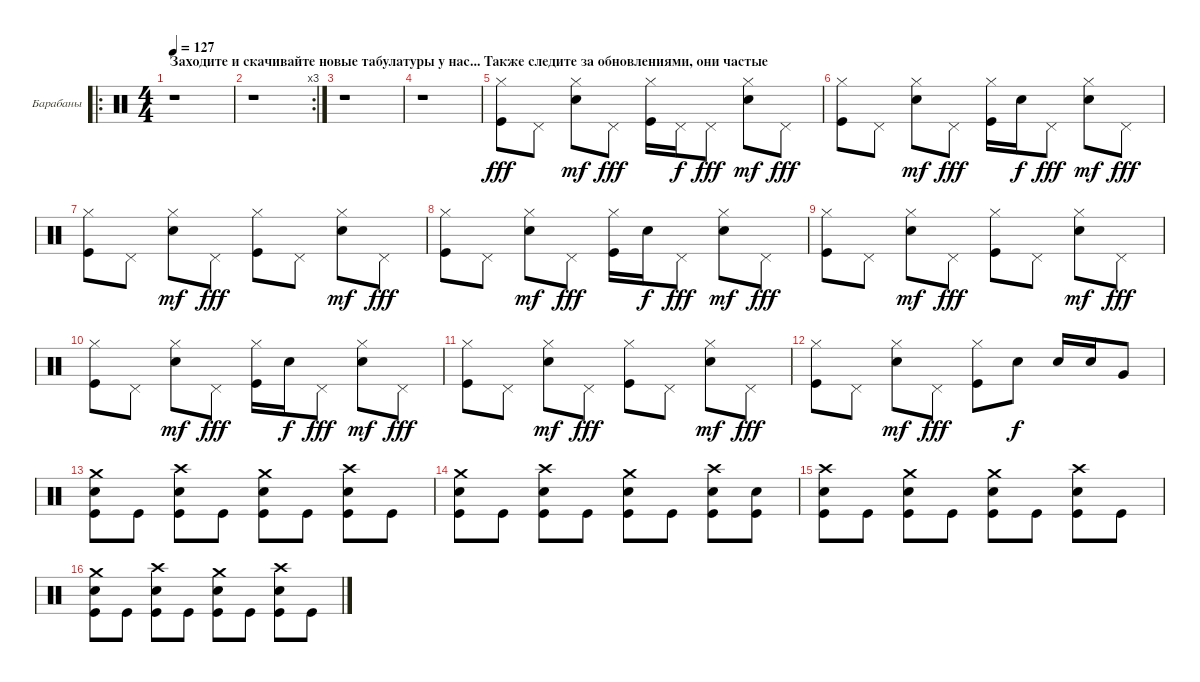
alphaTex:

\bracketExtendMode groupsimilarinstruments
\firstSystemTrackNameOrientation horizontal
\otherSystemsTrackNameOrientation horizontal
\track ("Ударные" "Барабаны") {instrument percussion}
\staff {score}
\articulation defaults
\ro
\ts (4 4)
\section ("" "Заходите и скачивайте новые табулатуры у нас... Также следите за обновлениями, они частые")
\tempo 127
\clef neutral
\ks c
r.1{dy fff} |
\rc 3
r.1 |
r.1 |
r.1 |
("Kick (hit)" "Hi-Hat (closed)").8 "Pedal Hi-Hat (hit)".8 ("Hi-Hat (closed)" "Snare (hit) 2").8{dy mf} "Pedal Hi-Hat (hit)".8{dy fff} ("Kick (hit)" "Hi-Hat (closed)").16 "Pedal Hi-Hat (hit)".16{dy f} "Pedal Hi-Hat (hit)".8{dy fff} ("Hi-Hat (closed)" "Snare (hit) 2").8{dy mf} "Pedal Hi-Hat (hit)".8{dy fff} |
("Kick (hit)" "Hi-Hat (closed)").8 "Pedal Hi-Hat (hit)".8 ("Hi-Hat (closed)" "Snare (hit) 2").8{dy mf} "Pedal Hi-Hat (hit)".8{dy fff} ("Kick (hit)" "Hi-Hat (closed)").16 "Snare (hit) 2".16{dy f} "Pedal Hi-Hat (hit)".8{dy fff} ("Hi-Hat (closed)" "Snare (hit) 2").8{dy mf} "Pedal Hi-Hat (hit)".8{dy fff} |
("Kick (hit)" "Hi-Hat (closed)").8 "Pedal Hi-Hat (hit)".8 ("Hi-Hat (closed)" "Snare (hit) 2").8{dy mf} "Pedal Hi-Hat (hit)".8{dy fff} ("Kick (hit)" "Hi-Hat (closed)").8 "Pedal Hi-Hat (hit)".8 ("Hi-Hat (closed)" "Snare (hit) 2").8{dy mf} "Pedal Hi-Hat (hit)".8{dy fff} |
("Kick (hit)" "Hi-Hat (closed)").8 "Pedal Hi-Hat (hit)".8 ("Hi-Hat (closed)" "Snare (hit) 2").8{dy mf} "Pedal Hi-Hat (hit)".8{dy fff} ("Kick (hit)" "Hi-Hat (closed)").16 "Snare (hit) 2".16{dy f} "Pedal Hi-Hat (hit)".8{dy fff} ("Hi-Hat (closed)" "Snare (hit) 2").8{dy mf} "Pedal Hi-Hat (hit)".8{dy fff} |
("Kick (hit)" "Hi-Hat (closed)").8 "Pedal Hi-Hat (hit)".8 ("Hi-Hat (closed)" "Snare (hit) 2").8{dy mf} "Pedal Hi-Hat (hit)".8{dy fff} ("Kick (hit)" "Hi-Hat (closed)").8 "Pedal Hi-Hat (hit)".8 ("Hi-Hat (closed)" "Snare (hit) 2").8{dy mf} "Pedal Hi-Hat (hit)".8{dy fff} |
("Kick (hit)" "Hi-Hat (closed)").8 "Pedal Hi-Hat (hit)".8 ("Hi-Hat (closed)" "Snare (hit) 2").8{dy mf} "Pedal Hi-Hat (hit)".8{dy fff} ("Kick (hit)" "Hi-Hat (closed)").16 "Snare (hit) 2".16{dy f} "Pedal Hi-Hat (hit)".8{dy fff} ("Hi-Hat (closed)" "Snare (hit) 2").8{dy mf} "Pedal Hi-Hat (hit)".8{dy fff} |
("Kick (hit)" "Hi-Hat (closed)").8 "Pedal Hi-Hat (hit)".8 ("Hi-Hat (closed)" "Snare (hit) 2").8{dy mf} "Pedal Hi-Hat (hit)".8{dy fff} ("Kick (hit)" "Hi-Hat (closed)").8 "Pedal Hi-Hat (hit)".8 ("Hi-Hat (closed)" "Snare (hit) 2").8{dy mf} "Pedal Hi-Hat (hit)".8{dy fff} |
("Kick (hit)" "Hi-Hat (closed)").8 "Pedal Hi-Hat (hit)".8 ("Hi-Hat (closed)" "Snare (hit) 2").8{dy mf} "Pedal Hi-Hat (hit)".8{dy fff} ("Kick (hit)" "Hi-Hat (closed)").8 "Snare (hit) 2".8{dy f} "Snare (hit) 2".16 "Snare (hit) 2".16 "Very Low Tom (hit)".8 |
("Kick (hit)" "Crash medium (hit)" "Snare (hit) 2").8 "Kick (hit)".8 ("Kick (hit)" "Crash high (hit)" "Snare (hit) 2").8 "Kick (hit)".8 ("Kick (hit)" "Crash medium (hit)" "Snare (hit) 2").8 "Kick (hit)".8 ("Kick (hit)" "Crash high (hit)" "Snare (hit) 2").8 "Kick (hit)".8 |
("Kick (hit)" "Crash medium (hit)" "Snare (hit) 2").8 "Kick (hit)".8 ("Kick (hit)" "Crash high (hit)" "Snare (hit) 2").8 "Kick (hit)".8 ("Kick (hit)" "Crash medium (hit)" "Snare (hit) 2").8 "Kick (hit)".8 ("Kick (hit)" "Crash high (hit)" "Snare (hit) 2").8 ("Kick (hit)" "Snare (hit) 2").8 |
("Kick (hit)" "Crash high (hit)" "Snare (hit) 2").8 "Kick (hit)".8 ("Kick (hit)" "Crash medium (hit)" "Snare (hit) 2").8 "Kick (hit)".8 ("Kick (hit)" "Crash medium (hit)" "Snare (hit) 2").8 "Kick (hit)".8 ("Kick (hit)" "Crash high (hit)" "Snare (hit) 2").8 "Kick (hit)".8 |
("Kick (hit)" "Crash medium (hit)" "Snare (hit) 2").8 "Kick (hit)".8 ("Kick (hit)" "Crash high (hit)" "Snare (hit) 2").8 "Kick (hit)".8 ("Kick (hit)" "Crash medium (hit)" "Snare (hit) 2").8 "Kick (hit)".8 ("Kick (hit)" "Crash high (hit)" "Snare (hit) 2").8 "Kick (hit)".8
